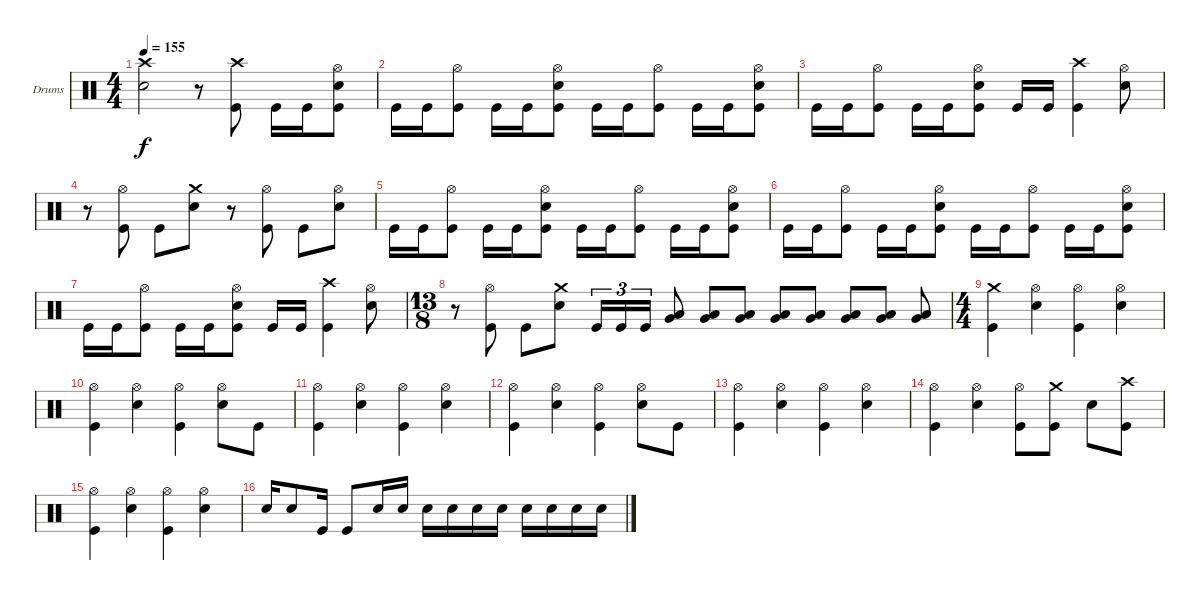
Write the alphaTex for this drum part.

\defaultSystemsLayout 4
\bracketExtendMode groupsimilarinstruments
\firstSystemTrackNameOrientation horizontal
\otherSystemsTrackNameOrientation horizontal
\track ("Drumkit" "Drums") {instrument percussion}
\staff {score}
\articulation defaults
\ts (4 4)
\tempo 155
\clef neutral
\scale
0.333333
\ks c
("Crash high (hit)" "Snare (hit) 2").2{dy f} r.8 ("Crash high (hit)" "Kick (hit)").8 "Kick (hit)".16 "Kick (hit)".16 ("Hi-Hat (open)" "Snare (hit) 2" "Kick (hit)").8 |
\scale
0.333333 "Kick (hit)".16 "Kick (hit)".16 ("Hi-Hat (open)" "Kick (hit)").8 "Kick (hit)".16 "Kick (hit)".16 ("Hi-Hat (open)" "Snare (hit) 2" "Kick (hit)").8 "Kick (hit)".16 "Kick (hit)".16 ("Hi-Hat (open)" "Kick (hit)").8 "Kick (hit)".16 "Kick (hit)".16 ("Hi-Hat (open)" "Snare (hit) 2" "Kick (hit)").8 |
\scale
0.333333 "Kick (hit)".16 "Kick (hit)".16 ("Hi-Hat (open)" "Kick (hit)").8 "Kick (hit)".16 "Kick (hit)".16 ("Hi-Hat (open)" "Snare (hit) 2" "Kick (hit)").8 "Kick (hit)".16 "Kick (hit)".16 ("Crash high (hit)" "Kick (hit)").4 ("Hi-Hat (open)" "Snare (hit) 2").8 |
\scale
0.333333 r.8 ("Hi-Hat (open)" "Kick (hit)").8 "Kick (hit)".8 ("Crash medium (hit)" "Snare (hit) 2").8 r.8 ("Hi-Hat (open)" "Kick (hit)").8 "Kick (hit)".8 ("Hi-Hat (open)" "Snare (hit) 2").8 |
\scale
0.333333 "Kick (hit)".16 "Kick (hit)".16 ("Hi-Hat (open)" "Kick (hit)").8 "Kick (hit)".16 "Kick (hit)".16 ("Hi-Hat (open)" "Snare (hit) 2" "Kick (hit)").8 "Kick (hit)".16 "Kick (hit)".16 ("Hi-Hat (open)" "Kick (hit)").8 "Kick (hit)".16 "Kick (hit)".16 ("Hi-Hat (open)" "Snare (hit) 2" "Kick (hit)").8 |
\scale
0.333333 "Kick (hit)".16 "Kick (hit)".16 ("Hi-Hat (open)" "Kick (hit)").8 "Kick (hit)".16 "Kick (hit)".16 ("Hi-Hat (open)" "Snare (hit) 2" "Kick (hit)").8 "Kick (hit)".16 "Kick (hit)".16 ("Hi-Hat (open)" "Kick (hit)").8 "Kick (hit)".16 "Kick (hit)".16 ("Hi-Hat (open)" "Snare (hit) 2" "Kick (hit)").8 |
\scale
0.333333 "Kick (hit)".16 "Kick (hit)".16 ("Hi-Hat (open)" "Kick (hit)").8 "Kick (hit)".16 "Kick (hit)".16 ("Hi-Hat (open)" "Snare (hit) 2" "Kick (hit)").8 "Kick (hit)".16 "Kick (hit)".16 ("Crash high (hit)" "Kick (hit)").4 ("Hi-Hat (open)" "Snare (hit) 2").8 |
\ts (13 8)
\scale
0.333333 r.8 ("Hi-Hat (open)" "Kick (hit)").8 "Kick (hit)".8 ("Crash medium (hit)" "Snare (hit) 2").8 "Kick (hit)".16{tu (3 2)} "Kick (hit)".16{tu (3 2)} "Kick (hit)".16{tu (3 2)} ("Very Low Tom (hit)" "Low Tom (hit)").8 ("Very Low Tom (hit)" "Low Tom (hit)").8 ("Very Low Tom (hit)" "Low Tom (hit)").8 ("Very Low Tom (hit)" "Low Tom (hit)").8 ("Very Low Tom (hit)" "Low Tom (hit)").8 ("Very Low Tom (hit)" "Low Tom (hit)").8 ("Very Low Tom (hit)" "Low Tom (hit)").8 ("Very Low Tom (hit)" "Low Tom (hit)").8 |
\ts (4 4)
\scale
0.333333 ("Crash medium (hit)" "Kick (hit)").4 ("Hi-Hat (open)" "Snare (hit) 2").4 ("Hi-Hat (open)" "Kick (hit)").4 ("Hi-Hat (open)" "Snare (hit) 2").4 |
\scale
0.333333 ("Hi-Hat (open)" "Kick (hit)").4 ("Hi-Hat (open)" "Snare (hit) 2").4 ("Hi-Hat (open)" "Kick (hit)").4 ("Hi-Hat (open)" "Snare (hit) 2").8 "Kick (hit)".8 |
\scale
0.333333 ("Hi-Hat (open)" "Kick (hit)").4 ("Hi-Hat (open)" "Snare (hit) 2").4 ("Hi-Hat (open)" "Kick (hit)").4 ("Hi-Hat (open)" "Snare (hit) 2").4 |
\scale
0.333333 ("Hi-Hat (open)" "Kick (hit)").4 ("Hi-Hat (open)" "Snare (hit) 2").4 ("Hi-Hat (open)" "Kick (hit)").4 ("Hi-Hat (open)" "Snare (hit) 2").8 "Kick (hit)".8 |
\scale
0.333333 ("Hi-Hat (open)" "Kick (hit)").4 ("Hi-Hat (open)" "Snare (hit) 2").4 ("Hi-Hat (open)" "Kick (hit)").4 ("Hi-Hat (open)" "Snare (hit) 2").4 |
\scale
0.333333 ("Hi-Hat (open)" "Kick (hit)").4 ("Hi-Hat (open)" "Snare (hit) 2").4 ("Hi-Hat (open)" "Kick (hit)").8 ("Crash medium (hit)" "Kick (hit)").8 "Snare (hit) 2".8 ("Crash high (hit)" "Kick (hit)").8 |
\scale
0.333333 ("Hi-Hat (open)" "Kick (hit)").4 ("Hi-Hat (open)" "Snare (hit) 2").4 ("Hi-Hat (open)" "Kick (hit)").4 ("Hi-Hat (open)" "Snare (hit) 2").4 |
\scale
0.333333 "Snare (hit) 2".16 "Snare (hit) 2".8 "Kick (hit)".16 "Kick (hit)".8 "Snare (hit) 2".16 "Snare (hit) 2".16 "Snare (hit) 2".16 "Snare (hit) 2".16 "Snare (hit) 2".16 "Snare (hit) 2".16 "Snare (hit) 2".16 "Snare (hit) 2".16 "Snare (hit) 2".16 "Snare (hit) 2".16
